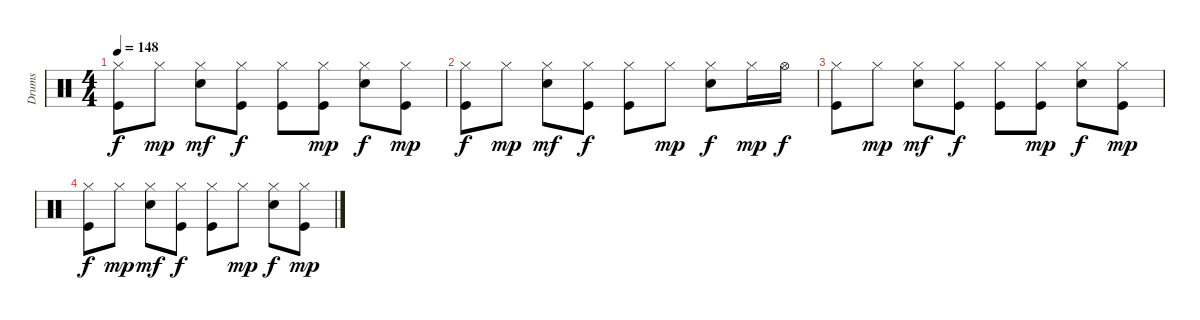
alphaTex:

\track ("Drums   " "Drums   ") {instrument percussion}
\staff {score}
\articulation defaults
\ts (4 4)
\tempo 148
\clef neutral
\ks c
("Hi-Hat (closed)" "Kick (hit)").8{dy f} "Hi-Hat (closed)".8{dy mp} ("Hi-Hat (closed)" "Snare (hit) 2").8{dy mf} ("Hi-Hat (closed)" "Kick (hit)").8{dy f} ("Hi-Hat (closed)" "Kick (hit)").8 ("Hi-Hat (closed)" "Kick (hit)").8{dy mp} ("Hi-Hat (closed)" "Snare (hit) 2").8{dy f} ("Hi-Hat (closed)" "Kick (hit)").8{dy mp} |
("Hi-Hat (closed)" "Kick (hit)").8{dy f} "Hi-Hat (closed)".8{dy mp} ("Hi-Hat (closed)" "Snare (hit) 2").8{dy mf} ("Hi-Hat (closed)" "Kick (hit)").8{dy f} ("Hi-Hat (closed)" "Kick (hit)").8 "Hi-Hat (closed)".8{dy mp} ("Hi-Hat (closed)" "Snare (hit) 2").8{dy f} "Hi-Hat (closed)".16{dy mp} "Hi-Hat (open)".16{dy f} |
("Hi-Hat (closed)" "Kick (hit)").8{volume 10} "Hi-Hat (closed)".8{dy mp} ("Hi-Hat (closed)" "Snare (hit) 2").8{dy mf} ("Hi-Hat (closed)" "Kick (hit)").8{dy f} ("Hi-Hat (closed)" "Kick (hit)").8 ("Hi-Hat (closed)" "Kick (hit)").8{dy mp} ("Hi-Hat (closed)" "Snare (hit) 2").8{dy f} ("Hi-Hat (closed)" "Kick (hit)").8{dy mp} |
("Hi-Hat (closed)" "Kick (hit)").8{dy f volume 5} "Hi-Hat (closed)".8{dy mp} ("Hi-Hat (closed)" "Snare (hit) 2").8{dy mf} ("Hi-Hat (closed)" "Kick (hit)").8{dy f} ("Hi-Hat (closed)" "Kick (hit)").8 "Hi-Hat (closed)".8{dy mp} ("Hi-Hat (closed)" "Snare (hit) 2").8{dy f} ("Hi-Hat (closed)" "Kick (hit)").8{dy mp}
